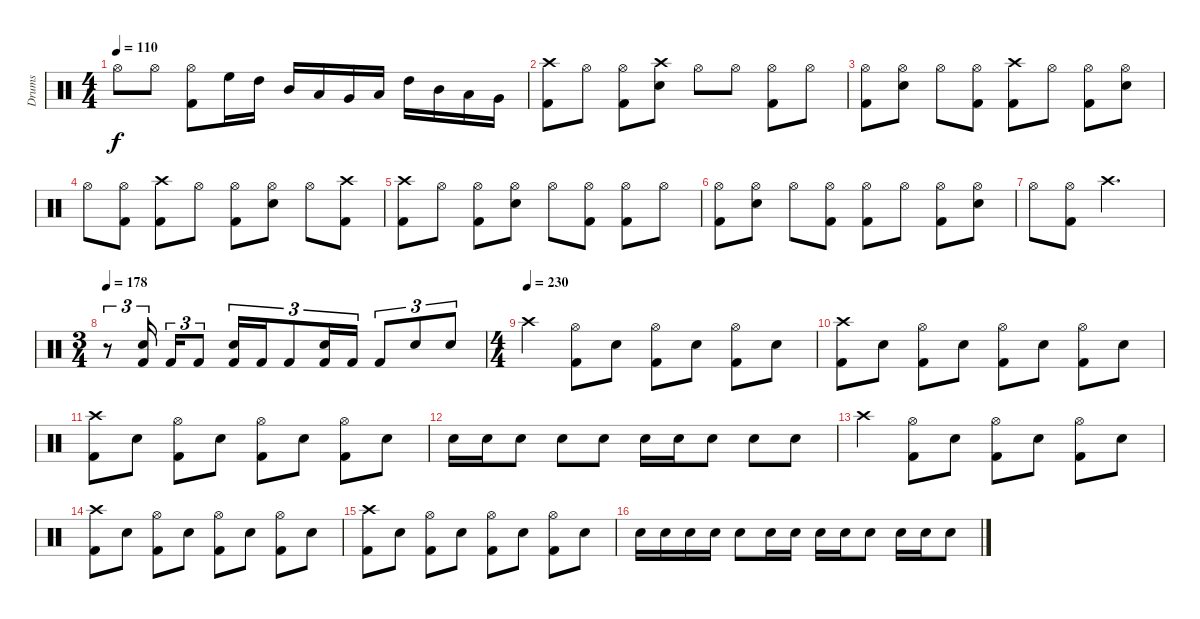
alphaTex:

\track ("Drums" "Drums") {instrument percussion}
\staff {score}
\articulation defaults
\ts (4 4)
\tempo 110
\clef neutral
\ks c "Hi-Hat (open)".8{dy f} "Hi-Hat (open)".8
("Hi-Hat (open)" "Kick (hit) 2").8 "High Floor Tom (hit)".16 "High Tom (hit)".16 "Mid Tom (hit)".16 "Low Tom (hit)".16 "Very Low Tom (hit)".16 "Low Floor Tom (hit)".16 "High Tom (hit)".16 "Mid Tom (hit)".16 "Low Tom (hit)".16 "Very Low Tom (hit)".16 |
("Crash high (hit)" "Kick (hit) 2").8 "Hi-Hat (open)".8 ("Hi-Hat (open)" "Kick (hit) 2").8 ("Crash high (hit)" "Snare (hit) 2").8 "Hi-Hat (open)".8 "Hi-Hat (open)".8 ("Hi-Hat (open)" "Kick (hit) 2").8 "Hi-Hat (open)".8 |
("Hi-Hat (open)" "Kick (hit) 2").8 ("Hi-Hat (open)" "Snare (hit) 2").8 "Hi-Hat (open)".8 ("Hi-Hat (open)" "Kick (hit) 2").8 ("Crash high (hit)" "Kick (hit) 2").8 "Hi-Hat (open)".8 ("Hi-Hat (open)" "Kick (hit) 2").8 ("Hi-Hat (open)" "Snare (hit) 2").8 |
"Hi-Hat (open)".8 ("Hi-Hat (open)" "Kick (hit) 2").8 ("Crash high (hit)" "Kick (hit) 2").8 "Hi-Hat (open)".8 ("Hi-Hat (open)" "Kick (hit) 2").8 ("Hi-Hat (open)" "Snare (hit) 2").8 "Hi-Hat (open)".8 ("Crash high (hit)" "Kick (hit) 2").8 |
("Crash high (hit)" "Kick (hit) 2").8 "Hi-Hat (open)".8 ("Hi-Hat (open)" "Kick (hit) 2").8 ("Hi-Hat (open)" "Snare (hit) 2").8 "Hi-Hat (open)".8 ("Hi-Hat (open)" "Kick (hit) 2").8 ("Hi-Hat (open)" "Kick (hit) 2").8 "Hi-Hat (open)".8 |
("Hi-Hat (open)" "Kick (hit) 2").8 ("Hi-Hat (open)" "Snare (hit) 2").8 "Hi-Hat (open)".8 ("Hi-Hat (open)" "Kick (hit) 2").8 ("Hi-Hat (open)" "Kick (hit) 2").8 "Hi-Hat (open)".8 ("Hi-Hat (open)" "Kick (hit) 2").8 ("Hi-Hat (open)" "Snare (hit) 2").8 |
"Hi-Hat (open)".8 ("Hi-Hat (open)" "Kick (hit) 2").8 "Crash high (hit)".2{d} |
\ts (3 4)
\tempo 178
r.8{tu (3 2)} ("Snare (hit) 2" "Kick (hit) 2").16{tu (3 2) beam splitsecondary} "Kick (hit) 2".16{tu (3 2)} "Kick (hit) 2".8{tu (3 2)} ("Snare (hit) 2" "Kick (hit) 2").16{tu (3 2)} "Kick (hit) 2".16{tu (3 2)} "Kick (hit) 2".8{tu (3 2)} ("Snare (hit) 2" "Kick (hit) 2").16{tu (3 2)} "Kick (hit) 2".16{tu (3 2)} "Kick (hit) 2".8{tu (3 2)} "Snare (hit) 2".8{tu (3 2)} "Snare (hit) 2".8{tu (3 2)} |
\ts (4 4)
\tempo (230)
"Crash high (hit)".4 ("Hi-Hat (open)" "Kick (hit) 2").8 "Snare (hit) 2".8 ("Hi-Hat (open)" "Kick (hit) 2").8 "Snare (hit) 2".8 ("Hi-Hat (open)" "Kick (hit) 2").8 "Snare (hit) 2".8 |
("Crash high (hit)" "Kick (hit) 2").8 "Snare (hit) 2".8 ("Hi-Hat (open)" "Kick (hit) 2").8 "Snare (hit) 2".8 ("Hi-Hat (open)" "Kick (hit) 2").8 "Snare (hit) 2".8 ("Hi-Hat (open)" "Kick (hit) 2").8 "Snare (hit) 2".8 |
("Crash high (hit)" "Kick (hit) 2").8 "Snare (hit) 2".8 ("Hi-Hat (open)" "Kick (hit) 2").8 "Snare (hit) 2".8 ("Hi-Hat (open)" "Kick (hit) 2").8 "Snare (hit) 2".8 ("Hi-Hat (open)" "Kick (hit) 2").8 "Snare (hit) 2".8 |
"Snare (hit) 2".16 "Snare (hit) 2".16 "Snare (hit) 2".8 "Snare (hit) 2".8 "Snare (hit) 2".8 "Snare (hit) 2".16 "Snare (hit) 2".16 "Snare (hit) 2".8 "Snare (hit) 2".8 "Snare (hit) 2".8 |
"Crash high (hit)".4 ("Hi-Hat (open)" "Kick (hit) 2").8 "Snare (hit) 2".8 ("Hi-Hat (open)" "Kick (hit) 2").8 "Snare (hit) 2".8 ("Hi-Hat (open)" "Kick (hit) 2").8 "Snare (hit) 2".8 |
("Crash high (hit)" "Kick (hit) 2").8 "Snare (hit) 2".8 ("Hi-Hat (open)" "Kick (hit) 2").8 "Snare (hit) 2".8 ("Hi-Hat (open)" "Kick (hit) 2").8 "Snare (hit) 2".8 ("Hi-Hat (open)" "Kick (hit) 2").8 "Snare (hit) 2".8 |
("Crash high (hit)" "Kick (hit) 2").8 "Snare (hit) 2".8 ("Hi-Hat (open)" "Kick (hit) 2").8 "Snare (hit) 2".8 ("Hi-Hat (open)" "Kick (hit) 2").8 "Snare (hit) 2".8 ("Hi-Hat (open)" "Kick (hit) 2").8 "Snare (hit) 2".8 |
"Snare (hit) 2".16 "Snare (hit) 2".16 "Snare (hit) 2".16 "Snare (hit) 2".16 "Snare (hit) 2".8 "Snare (hit) 2".16 "Snare (hit) 2".16 "Snare (hit) 2".16 "Snare (hit) 2".16 "Snare (hit) 2".8 "Snare (hit) 2".16 "Snare (hit) 2".16 "Snare (hit) 2".8
